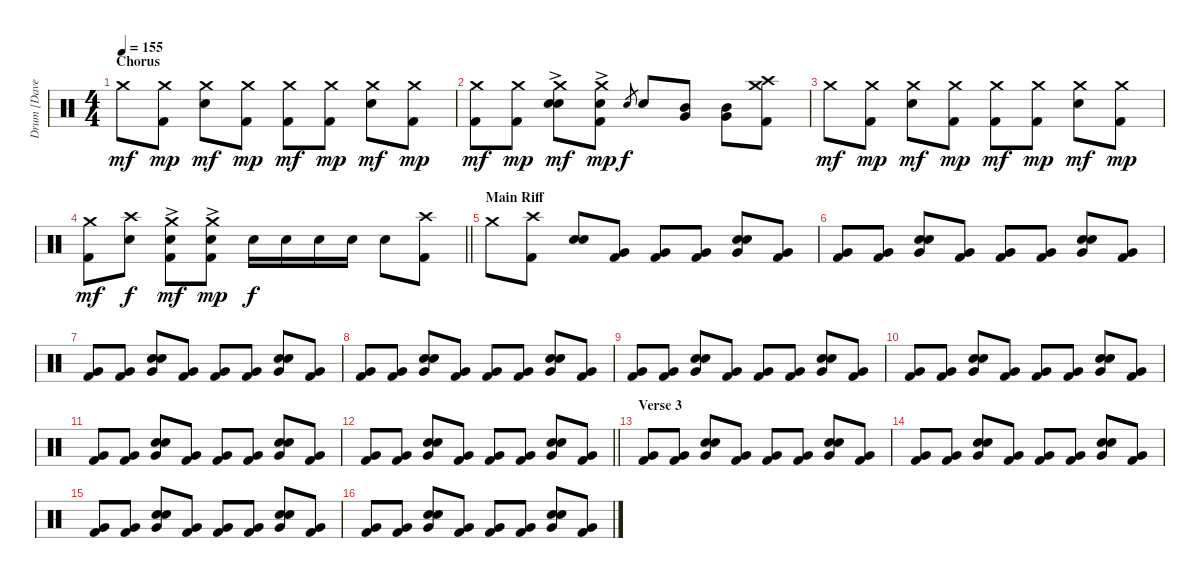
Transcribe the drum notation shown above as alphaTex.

\track ("Drum [Dave Grohl]" "Drum [Dave") {instrument percussion}
\staff {score}
\articulation defaults
\ts (4 4)
\section ("" "Chorus")
\tempo 155
\clef neutral
\ks c "Crash medium (hit)".8{dy mf}
("Crash medium (hit)" "Kick (hit) 2").8{dy mp} ("Crash medium (hit)" "Snare (hit) 2").8{dy mf} ("Crash medium (hit)" "Kick (hit) 2").8{dy mp} ("Crash medium (hit)" "Kick (hit) 2").8{dy mf} ("Crash medium (hit)" "Kick (hit) 2").8{dy mp} ("Crash medium (hit)" "Snare (hit) 2").8{dy mf} ("Crash medium (hit)" "Kick (hit) 2").8{dy mp} |
("Crash medium (hit)" "Kick (hit) 2").8{dy mf} ("Crash medium (hit)" "Kick (hit) 2").8{dy mp} ("Hand Clap (hit)"{ac} "Crash medium (hit)" "Snare (hit) 2").8{dy mf} ("Hand Clap (hit)"{ac} "Crash medium (hit)" "Kick (hit) 2").8{dy mp} "Snare (hit) 2".8{gr dy f} "Snare (hit) 2".8 ("Mid Tom (hit)" "Very Low Tom (hit)").8 ("Mid Tom (hit)" "Very Low Tom (hit)").8 ("Crash high (hit)" "Crash medium (hit)" "Kick (hit) 2").8 |
"Crash medium (hit)".8{dy mf} ("Crash medium (hit)" "Kick (hit) 2").8{dy mp} ("Crash medium (hit)" "Snare (hit) 2").8{dy mf} ("Crash medium (hit)" "Kick (hit) 2").8{dy mp} ("Crash medium (hit)" "Kick (hit) 2").8{dy mf} ("Crash medium (hit)" "Kick (hit) 2").8{dy mp} ("Crash medium (hit)" "Snare (hit) 2").8{dy mf} ("Crash medium (hit)" "Kick (hit) 2").8{dy mp} |
\barLineRight lightlight
("Crash medium (hit)" "Kick (hit) 2").8{dy mf} ("Crash high (hit)" "Snare (hit) 2").8{dy f} ("Hand Clap (hit)"{ac} "Crash medium (hit)" "Kick (hit) 2").8{dy mf} ("Hand Clap (hit)"{ac} "Crash medium (hit)" "Kick (hit) 2").8{dy mp} "Snare (hit) 2".16{dy f} "Snare (hit) 2".16 "Snare (hit) 2".16 "Snare (hit) 2".16 "Snare (hit) 2".8 ("Crash high (hit)" "Kick (hit) 2").8 |
\section ("" "Main Riff")
"Crash medium (hit)".8 ("Crash high (hit)" "Kick (hit) 2").8 ("Hand Clap (hit)" "Snare (hit) 2").8 ("Very Low Tom (hit)" "Kick (hit) 2").8 ("Very Low Tom (hit)" "Kick (hit) 2").8 ("Very Low Tom (hit)" "Kick (hit) 2").8 ("Hand Clap (hit)" "Very Low Tom (hit)" "Snare (hit) 2").8 ("Very Low Tom (hit)" "Kick (hit) 2").8 |
("Very Low Tom (hit)" "Kick (hit) 2").8 ("Very Low Tom (hit)" "Kick (hit) 2").8 ("Hand Clap (hit)" "Very Low Tom (hit)" "Snare (hit) 2").8 ("Very Low Tom (hit)" "Kick (hit) 2").8 ("Very Low Tom (hit)" "Kick (hit) 2").8 ("Very Low Tom (hit)" "Kick (hit) 2").8 ("Hand Clap (hit)" "Very Low Tom (hit)" "Snare (hit) 2").8 ("Very Low Tom (hit)" "Kick (hit) 2").8 |
("Very Low Tom (hit)" "Kick (hit) 2").8 ("Very Low Tom (hit)" "Kick (hit) 2").8 ("Hand Clap (hit)" "Very Low Tom (hit)" "Snare (hit) 2").8 ("Very Low Tom (hit)" "Kick (hit) 2").8 ("Very Low Tom (hit)" "Kick (hit) 2").8 ("Very Low Tom (hit)" "Kick (hit) 2").8 ("Hand Clap (hit)" "Very Low Tom (hit)" "Snare (hit) 2").8 ("Very Low Tom (hit)" "Kick (hit) 2").8 |
("Very Low Tom (hit)" "Kick (hit) 2").8 ("Very Low Tom (hit)" "Kick (hit) 2").8 ("Hand Clap (hit)" "Very Low Tom (hit)" "Snare (hit) 2").8 ("Very Low Tom (hit)" "Kick (hit) 2").8 ("Very Low Tom (hit)" "Kick (hit) 2").8 ("Very Low Tom (hit)" "Kick (hit) 2").8 ("Hand Clap (hit)" "Very Low Tom (hit)" "Snare (hit) 2").8 ("Very Low Tom (hit)" "Kick (hit) 2").8 |
("Very Low Tom (hit)" "Kick (hit) 2").8 ("Very Low Tom (hit)" "Kick (hit) 2").8 ("Hand Clap (hit)" "Very Low Tom (hit)" "Snare (hit) 2").8 ("Very Low Tom (hit)" "Kick (hit) 2").8 ("Very Low Tom (hit)" "Kick (hit) 2").8 ("Very Low Tom (hit)" "Kick (hit) 2").8 ("Hand Clap (hit)" "Very Low Tom (hit)" "Snare (hit) 2").8 ("Very Low Tom (hit)" "Kick (hit) 2").8 |
("Very Low Tom (hit)" "Kick (hit) 2").8 ("Very Low Tom (hit)" "Kick (hit) 2").8 ("Hand Clap (hit)" "Very Low Tom (hit)" "Snare (hit) 2").8 ("Very Low Tom (hit)" "Kick (hit) 2").8 ("Very Low Tom (hit)" "Kick (hit) 2").8 ("Very Low Tom (hit)" "Kick (hit) 2").8 ("Hand Clap (hit)" "Very Low Tom (hit)" "Snare (hit) 2").8 ("Very Low Tom (hit)" "Kick (hit) 2").8 |
("Very Low Tom (hit)" "Kick (hit) 2").8 ("Very Low Tom (hit)" "Kick (hit) 2").8 ("Hand Clap (hit)" "Very Low Tom (hit)" "Snare (hit) 2").8 ("Very Low Tom (hit)" "Kick (hit) 2").8 ("Very Low Tom (hit)" "Kick (hit) 2").8 ("Very Low Tom (hit)" "Kick (hit) 2").8 ("Hand Clap (hit)" "Very Low Tom (hit)" "Snare (hit) 2").8 ("Very Low Tom (hit)" "Kick (hit) 2").8 |
\barLineRight lightlight
("Very Low Tom (hit)" "Kick (hit) 2").8 ("Very Low Tom (hit)" "Kick (hit) 2").8 ("Hand Clap (hit)" "Very Low Tom (hit)" "Snare (hit) 2").8 ("Very Low Tom (hit)" "Kick (hit) 2").8 ("Very Low Tom (hit)" "Kick (hit) 2").8 ("Very Low Tom (hit)" "Kick (hit) 2").8 ("Hand Clap (hit)" "Very Low Tom (hit)" "Snare (hit) 2").8 ("Very Low Tom (hit)" "Kick (hit) 2").8 |
\section ("" "Verse 3")
("Very Low Tom (hit)" "Kick (hit) 2").8 ("Very Low Tom (hit)" "Kick (hit) 2").8 ("Hand Clap (hit)" "Very Low Tom (hit)" "Snare (hit) 2").8 ("Very Low Tom (hit)" "Kick (hit) 2").8 ("Very Low Tom (hit)" "Kick (hit) 2").8 ("Very Low Tom (hit)" "Kick (hit) 2").8 ("Hand Clap (hit)" "Very Low Tom (hit)" "Snare (hit) 2").8 ("Very Low Tom (hit)" "Kick (hit) 2").8 |
("Very Low Tom (hit)" "Kick (hit) 2").8 ("Very Low Tom (hit)" "Kick (hit) 2").8 ("Hand Clap (hit)" "Very Low Tom (hit)" "Snare (hit) 2").8 ("Very Low Tom (hit)" "Kick (hit) 2").8 ("Very Low Tom (hit)" "Kick (hit) 2").8 ("Very Low Tom (hit)" "Kick (hit) 2").8 ("Hand Clap (hit)" "Very Low Tom (hit)" "Snare (hit) 2").8 ("Very Low Tom (hit)" "Kick (hit) 2").8 |
("Very Low Tom (hit)" "Kick (hit) 2").8 ("Very Low Tom (hit)" "Kick (hit) 2").8 ("Hand Clap (hit)" "Very Low Tom (hit)" "Snare (hit) 2").8 ("Very Low Tom (hit)" "Kick (hit) 2").8 ("Very Low Tom (hit)" "Kick (hit) 2").8 ("Very Low Tom (hit)" "Kick (hit) 2").8 ("Hand Clap (hit)" "Very Low Tom (hit)" "Snare (hit) 2").8 ("Very Low Tom (hit)" "Kick (hit) 2").8 |
("Very Low Tom (hit)" "Kick (hit) 2").8 ("Very Low Tom (hit)" "Kick (hit) 2").8 ("Hand Clap (hit)" "Very Low Tom (hit)" "Snare (hit) 2").8 ("Very Low Tom (hit)" "Kick (hit) 2").8 ("Very Low Tom (hit)" "Kick (hit) 2").8 ("Very Low Tom (hit)" "Kick (hit) 2").8 ("Hand Clap (hit)" "Very Low Tom (hit)" "Snare (hit) 2").8 ("Very Low Tom (hit)" "Kick (hit) 2").8
